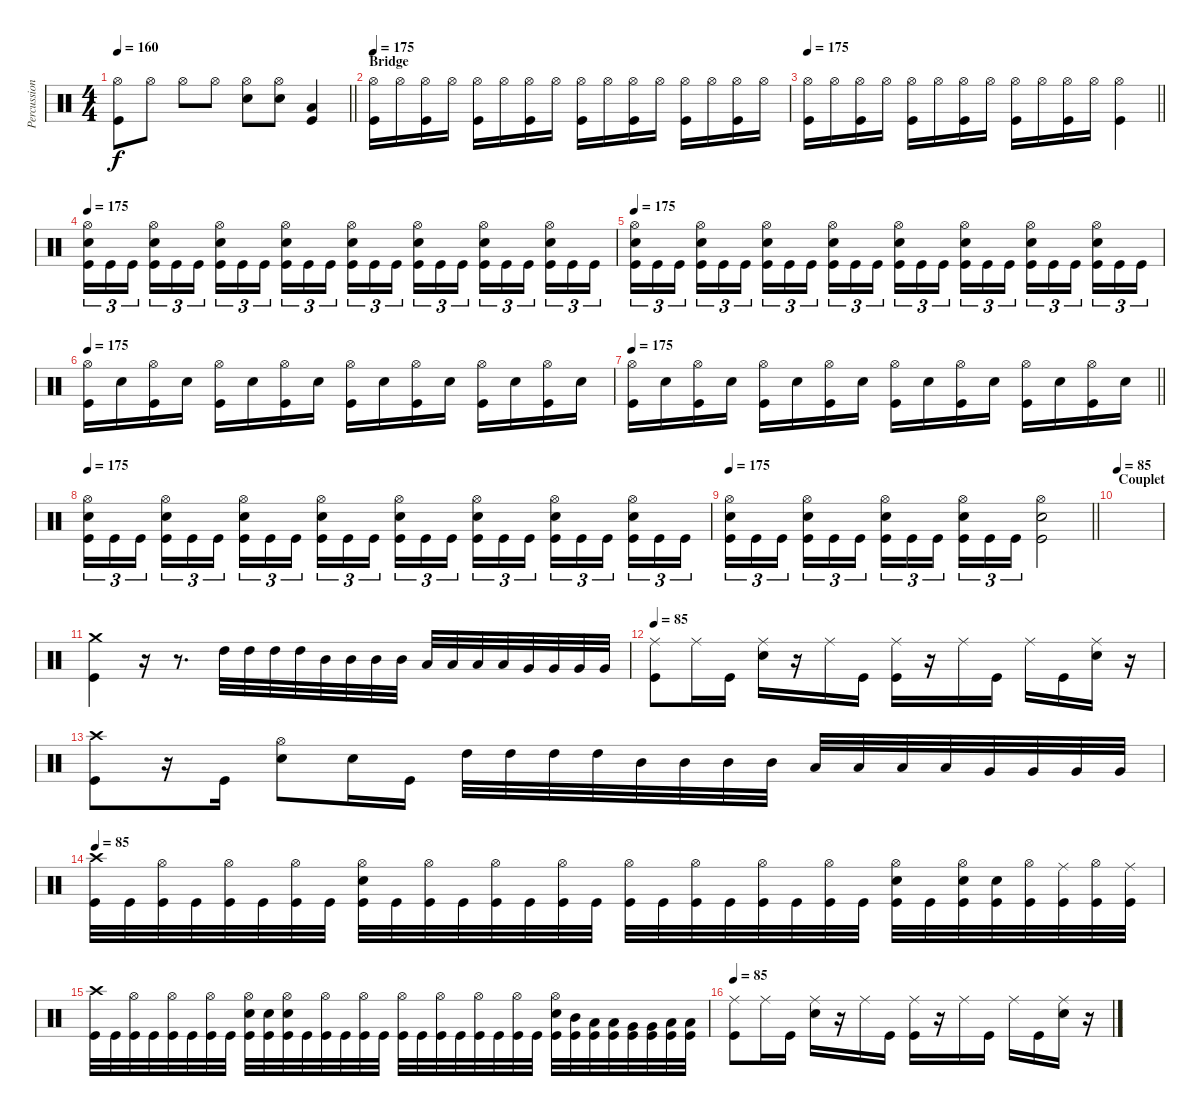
\track ("Percussion" "Percussion") {instrument percussion}
\staff {score}
\articulation defaults
\ts (4 4)
\tempo 160
\clef neutral
\barLineRight lightlight
\ks c
("Hi-Hat (open)" "Kick (hit)").8{dy f} "Hi-Hat (open)".8 "Hi-Hat (open)".8 "Hi-Hat (open)".8 ("Hi-Hat (open)" "Electric Snare (hit)").8 ("Hi-Hat (open)" "Electric Snare (hit)").8 ("Low Floor Tom (hit)" "Kick (hit)").4 |
\section ("" "Bridge")
\tempo 175
("Hi-Hat (open)" "Kick (hit)").16 "Hi-Hat (open)".16 ("Hi-Hat (open)" "Kick (hit)").16 "Hi-Hat (open)".16 ("Hi-Hat (open)" "Kick (hit)").16 "Hi-Hat (open)".16 ("Hi-Hat (open)" "Kick (hit)").16 "Hi-Hat (open)".16 ("Hi-Hat (open)" "Kick (hit)").16 "Hi-Hat (open)".16 ("Hi-Hat (open)" "Kick (hit)").16 "Hi-Hat (open)".16 ("Hi-Hat (open)" "Kick (hit)").16 "Hi-Hat (open)".16 ("Hi-Hat (open)" "Kick (hit)").16 "Hi-Hat (open)".16 |
\tempo 175
\barLineRight lightlight
("Hi-Hat (open)" "Kick (hit)").16 "Hi-Hat (open)".16 ("Hi-Hat (open)" "Kick (hit)").16 "Hi-Hat (open)".16 ("Hi-Hat (open)" "Kick (hit)").16 "Hi-Hat (open)".16 ("Hi-Hat (open)" "Kick (hit)").16 "Hi-Hat (open)".16 ("Hi-Hat (open)" "Kick (hit)").16 "Hi-Hat (open)".16 ("Hi-Hat (open)" "Kick (hit)").16 "Hi-Hat (open)".16 ("Hi-Hat (open)" "Kick (hit)").4 |
\tempo 175
("Hi-Hat (open)" "Electric Snare (hit)" "Kick (hit)").16{tu (3 2)} "Kick (hit)".16{tu (3 2)} "Kick (hit)".16{tu (3 2)} ("Hi-Hat (open)" "Electric Snare (hit)" "Kick (hit)").16{tu (3 2)} "Kick (hit)".16{tu (3 2)} "Kick (hit)".16{tu (3 2)} ("Hi-Hat (open)" "Electric Snare (hit)" "Kick (hit)").16{tu (3 2)} "Kick (hit)".16{tu (3 2)} "Kick (hit)".16{tu (3 2)} ("Hi-Hat (open)" "Electric Snare (hit)" "Kick (hit)").16{tu (3 2)} "Kick (hit)".16{tu (3 2)} "Kick (hit)".16{tu (3 2)} ("Hi-Hat (open)" "Electric Snare (hit)" "Kick (hit)").16{tu (3 2)} "Kick (hit)".16{tu (3 2)} "Kick (hit)".16{tu (3 2)} ("Hi-Hat (open)" "Electric Snare (hit)" "Kick (hit)").16{tu (3 2)} "Kick (hit)".16{tu (3 2)} "Kick (hit)".16{tu (3 2)} ("Hi-Hat (open)" "Electric Snare (hit)" "Kick (hit)").16{tu (3 2)} "Kick (hit)".16{tu (3 2)} "Kick (hit)".16{tu (3 2)} ("Hi-Hat (open)" "Electric Snare (hit)" "Kick (hit)").16{tu (3 2)} "Kick (hit)".16{tu (3 2)} "Kick (hit)".16{tu (3 2)} |
\tempo 175
("Hi-Hat (open)" "Electric Snare (hit)" "Kick (hit)").16{tu (3 2)} "Kick (hit)".16{tu (3 2)} "Kick (hit)".16{tu (3 2)} ("Hi-Hat (open)" "Electric Snare (hit)" "Kick (hit)").16{tu (3 2)} "Kick (hit)".16{tu (3 2)} "Kick (hit)".16{tu (3 2)} ("Hi-Hat (open)" "Electric Snare (hit)" "Kick (hit)").16{tu (3 2)} "Kick (hit)".16{tu (3 2)} "Kick (hit)".16{tu (3 2)} ("Hi-Hat (open)" "Electric Snare (hit)" "Kick (hit)").16{tu (3 2)} "Kick (hit)".16{tu (3 2)} "Kick (hit)".16{tu (3 2)} ("Hi-Hat (open)" "Electric Snare (hit)" "Kick (hit)").16{tu (3 2)} "Kick (hit)".16{tu (3 2)} "Kick (hit)".16{tu (3 2)} ("Hi-Hat (open)" "Electric Snare (hit)" "Kick (hit)").16{tu (3 2)} "Kick (hit)".16{tu (3 2)} "Kick (hit)".16{tu (3 2)} ("Hi-Hat (open)" "Electric Snare (hit)" "Kick (hit)").16{tu (3 2)} "Kick (hit)".16{tu (3 2)} "Kick (hit)".16{tu (3 2)} ("Hi-Hat (open)" "Electric Snare (hit)" "Kick (hit)").16{tu (3 2)} "Kick (hit)".16{tu (3 2)} "Kick (hit)".16{tu (3 2)} |
\tempo 175
("Hi-Hat (open)" "Kick (hit)").16 "Electric Snare (hit)".16 ("Hi-Hat (open)" "Kick (hit)").16 "Electric Snare (hit)".16 ("Hi-Hat (open)" "Kick (hit)").16 "Electric Snare (hit)".16 ("Hi-Hat (open)" "Kick (hit)").16 "Electric Snare (hit)".16 ("Hi-Hat (open)" "Kick (hit)").16 "Electric Snare (hit)".16 ("Hi-Hat (open)" "Kick (hit)").16 "Electric Snare (hit)".16 ("Hi-Hat (open)" "Kick (hit)").16 "Electric Snare (hit)".16 ("Hi-Hat (open)" "Kick (hit)").16 "Electric Snare (hit)".16 |
\tempo 175
\barLineRight lightlight
("Hi-Hat (open)" "Kick (hit)").16 "Electric Snare (hit)".16 ("Hi-Hat (open)" "Kick (hit)").16 "Electric Snare (hit)".16 ("Hi-Hat (open)" "Kick (hit)").16 "Electric Snare (hit)".16 ("Hi-Hat (open)" "Kick (hit)").16 "Electric Snare (hit)".16 ("Hi-Hat (open)" "Kick (hit)").16 "Electric Snare (hit)".16 ("Hi-Hat (open)" "Kick (hit)").16 "Electric Snare (hit)".16 ("Hi-Hat (open)" "Kick (hit)").16 "Electric Snare (hit)".16 ("Hi-Hat (open)" "Kick (hit)").16 "Electric Snare (hit)".16 |
\tempo 175
("Hi-Hat (open)" "Electric Snare (hit)" "Kick (hit)").16{tu (3 2)} "Kick (hit)".16{tu (3 2)} "Kick (hit)".16{tu (3 2)} ("Hi-Hat (open)" "Electric Snare (hit)" "Kick (hit)").16{tu (3 2)} "Kick (hit)".16{tu (3 2)} "Kick (hit)".16{tu (3 2)} ("Hi-Hat (open)" "Electric Snare (hit)" "Kick (hit)").16{tu (3 2)} "Kick (hit)".16{tu (3 2)} "Kick (hit)".16{tu (3 2)} ("Hi-Hat (open)" "Electric Snare (hit)" "Kick (hit)").16{tu (3 2)} "Kick (hit)".16{tu (3 2)} "Kick (hit)".16{tu (3 2)} ("Hi-Hat (open)" "Electric Snare (hit)" "Kick (hit)").16{tu (3 2)} "Kick (hit)".16{tu (3 2)} "Kick (hit)".16{tu (3 2)} ("Hi-Hat (open)" "Electric Snare (hit)" "Kick (hit)").16{tu (3 2)} "Kick (hit)".16{tu (3 2)} "Kick (hit)".16{tu (3 2)} ("Hi-Hat (open)" "Electric Snare (hit)" "Kick (hit)").16{tu (3 2)} "Kick (hit)".16{tu (3 2)} "Kick (hit)".16{tu (3 2)} ("Hi-Hat (open)" "Electric Snare (hit)" "Kick (hit)").16{tu (3 2)} "Kick (hit)".16{tu (3 2)} "Kick (hit)".16{tu (3 2)} |
\tempo 175
\barLineRight lightlight
("Hi-Hat (open)" "Electric Snare (hit)" "Kick (hit)").16{tu (3 2)} "Kick (hit)".16{tu (3 2)} "Kick (hit)".16{tu (3 2)} ("Hi-Hat (open)" "Electric Snare (hit)" "Kick (hit)").16{tu (3 2)} "Kick (hit)".16{tu (3 2)} "Kick (hit)".16{tu (3 2)} ("Hi-Hat (open)" "Electric Snare (hit)" "Kick (hit)").16{tu (3 2)} "Kick (hit)".16{tu (3 2)} "Kick (hit)".16{tu (3 2)} ("Hi-Hat (open)" "Electric Snare (hit)" "Kick (hit)").16{tu (3 2)} "Kick (hit)".16{tu (3 2)} "Kick (hit)".16{tu (3 2)} ("Hi-Hat (open)" "Electric Snare (hit)" "Kick (hit)").2 |
\section ("" "Couplet")
\tempo 85
|
("Crash medium (hit)" "Kick (hit)").4 r.16 r.8{d} "High Tom (hit)".32 "High Tom (hit)".32 "High Tom (hit)".32 "High Tom (hit)".32 "Mid Tom (hit)".32 "Mid Tom (hit)".32 "Mid Tom (hit)".32 "Mid Tom (hit)".32 "Low Tom (hit)".32 "Low Tom (hit)".32 "Low Tom (hit)".32 "Low Tom (hit)".32 "Very Low Tom (hit)".32 "Very Low Tom (hit)".32 "Very Low Tom (hit)".32 "Very Low Tom (hit)".32 |
\tempo 85
("Ride (middle)" "Kick (hit)").8 "Ride (middle)".16 "Kick (hit)".16 ("Ride (middle)" "Snare (hit) 2").16 r.16 "Ride (middle)".16 "Kick (hit)".16 ("Ride (middle)" "Kick (hit)").16 r.16 "Ride (middle)".16 "Kick (hit)".16 "Ride (middle)".16 "Kick (hit)".16 ("Ride (middle)" "Snare (hit) 2").16 r.16 |
("Crash high (hit)" "Kick (hit)").8 r.16 "Kick (hit)".16 ("Hi-Hat (open)" "Electric Snare (hit)").8 "Electric Snare (hit)".16 "Kick (hit)".16 "High Tom (hit)".32 "High Tom (hit)".32 "High Tom (hit)".32 "High Tom (hit)".32 "Mid Tom (hit)".32 "Mid Tom (hit)".32 "Mid Tom (hit)".32 "Mid Tom (hit)".32 "Low Tom (hit)".32 "Low Tom (hit)".32 "Low Tom (hit)".32 "Low Tom (hit)".32 "Very Low Tom (hit)".32 "Very Low Tom (hit)".32 "Very Low Tom (hit)".32 "Very Low Tom (hit)".32 |
\tempo 85
("Crash high (hit)" "Kick (hit)").32 "Kick (hit)".32 ("Hi-Hat (open)" "Kick (hit)").32 "Kick (hit)".32 ("Hi-Hat (open)" "Kick (hit)").32 "Kick (hit)".32 ("Hi-Hat (open)" "Kick (hit)").32 "Kick (hit)".32 ("Hi-Hat (open)" "Electric Snare (hit)" "Kick (hit)").32 "Kick (hit)".32 ("Hi-Hat (open)" "Kick (hit)").32 "Kick (hit)".32 ("Hi-Hat (open)" "Kick (hit)").32 "Kick (hit)".32 ("Hi-Hat (open)" "Kick (hit)").32 "Kick (hit)".32 ("Hi-Hat (open)" "Kick (hit)").32 "Kick (hit)".32 ("Hi-Hat (open)" "Kick (hit)").32 "Kick (hit)".32 ("Hi-Hat (open)" "Kick (hit)").32 "Kick (hit)".32 ("Hi-Hat (open)" "Kick (hit)").32 "Kick (hit)".32 ("Hi-Hat (open)" "Electric Snare (hit)" "Kick (hit)").32 "Kick (hit)".32 ("Hi-Hat (open)" "Electric Snare (hit)" "Kick (hit)").32 ("Electric Snare (hit)" "Kick (hit)").32 ("Hi-Hat (open)" "Kick (hit)").32 ("Ride (middle)" "Kick (hit)").32 ("Hi-Hat (open)" "Kick (hit)").32 ("Ride (middle)" "Kick (hit)").32 |
("Crash high (hit)" "Kick (hit)").32 "Kick (hit)".32 ("Hi-Hat (open)" "Kick (hit)").32 "Kick (hit)".32 ("Hi-Hat (open)" "Kick (hit)").32 "Kick (hit)".32 ("Hi-Hat (open)" "Kick (hit)").32 "Kick (hit)".32 ("Hi-Hat (open)" "Electric Snare (hit)" "Kick (hit)").32 ("Electric Snare (hit)" "Kick (hit)").32 ("Hi-Hat (open)" "Electric Snare (hit)" "Kick (hit)").32 "Kick (hit)".32 ("Hi-Hat (open)" "Kick (hit)").32 "Kick (hit)".32 ("Hi-Hat (open)" "Kick (hit)").32 "Kick (hit)".32 ("Hi-Hat (open)" "Kick (hit)").32 "Kick (hit)".32 ("Hi-Hat (open)" "Kick (hit)").32 "Kick (hit)".32 ("Hi-Hat (open)" "Kick (hit)").32 "Kick (hit)".32 ("Hi-Hat (open)" "Kick (hit)").32 "Kick (hit)".32 ("Hi-Hat (open)" "Electric Snare (hit)" "Kick (hit)").32 ("Mid Tom (hit)" "Kick (hit)").32 ("Low Tom (hit)" "Kick (hit)").32 ("Low Tom (hit)" "Kick (hit)").32 ("Very Low Tom (hit)" "Kick (hit)").32 ("Very Low Tom (hit)" "Kick (hit)").32 ("Low Floor Tom (hit)" "Kick (hit)").32 ("Low Floor Tom (hit)" "Kick (hit)").32 |
\tempo 85
("Ride (middle)" "Kick (hit)").8 "Ride (middle)".16 "Kick (hit)".16 ("Ride (middle)" "Snare (hit) 2").16 r.16 "Ride (middle)".16 "Kick (hit)".16 ("Ride (middle)" "Kick (hit)").16 r.16 "Ride (middle)".16 "Kick (hit)".16 "Ride (middle)".16 "Kick (hit)".16 ("Ride (middle)" "Snare (hit) 2").16 r.16
